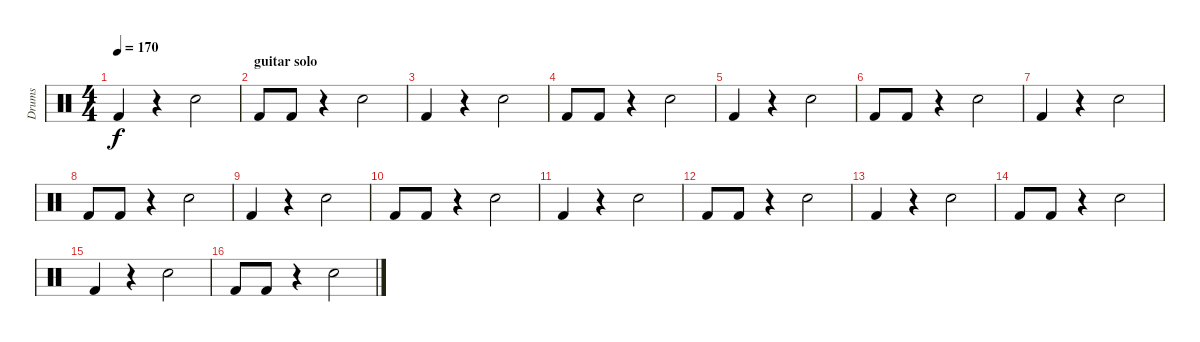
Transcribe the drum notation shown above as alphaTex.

\track ("Drums" "Drums") {instrument percussion}
\staff {score}
\articulation defaults
\ts (4 4)
\tempo 170
\clef neutral
\ks c "Kick (hit) 2".4{dy f}
r.4 "Snare (hit) 2".2 |
\section ("" "guitar solo")
"Kick (hit) 2".8 "Kick (hit) 2".8 r.4 "Snare (hit) 2".2 |
"Kick (hit) 2".4 r.4 "Snare (hit) 2".2 |
"Kick (hit) 2".8 "Kick (hit) 2".8 r.4 "Snare (hit) 2".2 |
"Kick (hit) 2".4 r.4 "Snare (hit) 2".2 |
"Kick (hit) 2".8 "Kick (hit) 2".8 r.4 "Snare (hit) 2".2 |
"Kick (hit) 2".4 r.4 "Snare (hit) 2".2 |
"Kick (hit) 2".8 "Kick (hit) 2".8 r.4 "Snare (hit) 2".2 |
"Kick (hit) 2".4 r.4 "Snare (hit) 2".2 |
"Kick (hit) 2".8 "Kick (hit) 2".8 r.4 "Snare (hit) 2".2 |
"Kick (hit) 2".4 r.4 "Snare (hit) 2".2 |
"Kick (hit) 2".8 "Kick (hit) 2".8 r.4 "Snare (hit) 2".2 |
"Kick (hit) 2".4 r.4 "Snare (hit) 2".2 |
"Kick (hit) 2".8 "Kick (hit) 2".8 r.4 "Snare (hit) 2".2 |
"Kick (hit) 2".4 r.4 "Snare (hit) 2".2 |
"Kick (hit) 2".8 "Kick (hit) 2".8 r.4 "Snare (hit) 2".2
